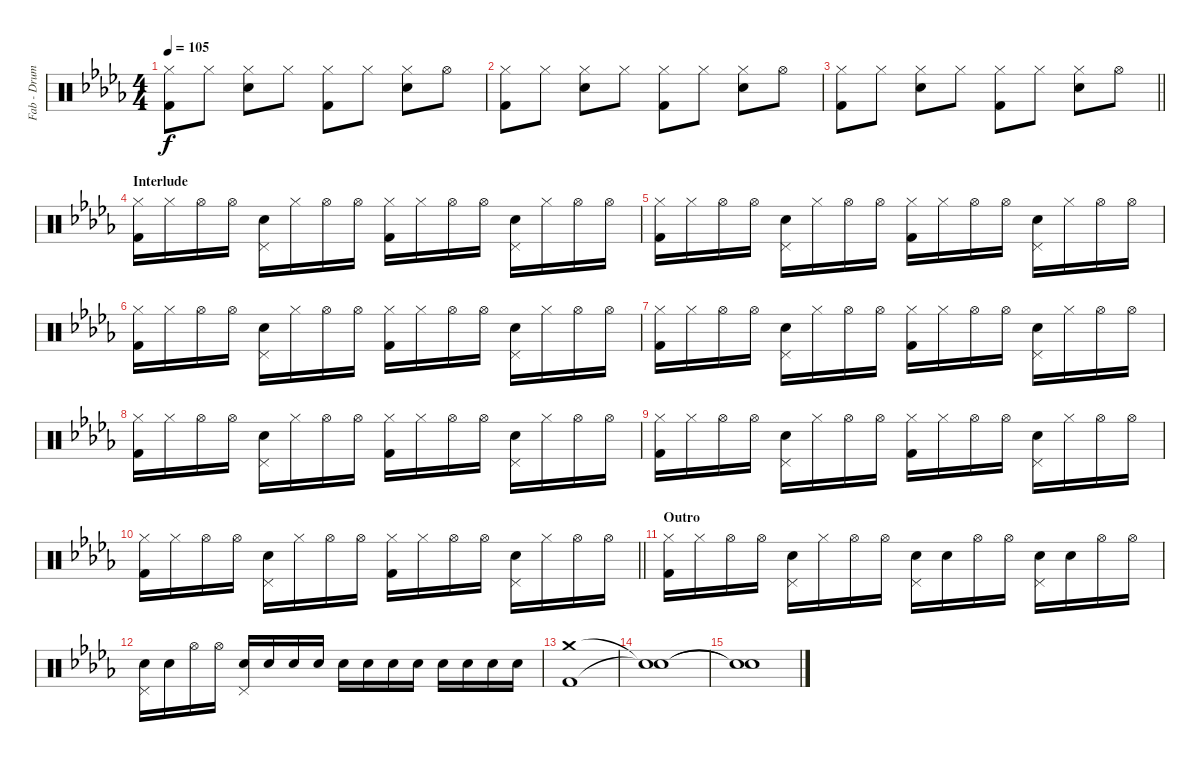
\track ("Fab - Drums MIDI" "Fab - Drum") {instrument percussion}
\staff {score}
\articulation defaults
\ts (4 4)
\tempo 105
\clef neutral
\ks db
("Hi-Hat (closed)" "Kick (hit) 2").8{dy f} "Hi-Hat (closed)".8 ("Hi-Hat (closed)" "Snare (hit) 2").8 "Hi-Hat (closed)".8 ("Hi-Hat (closed)" "Kick (hit) 2").8 "Hi-Hat (closed)".8 ("Hi-Hat (closed)" "Snare (hit) 2").8 "Hi-Hat (open)".8 |
("Hi-Hat (closed)" "Kick (hit) 2").8 "Hi-Hat (closed)".8 ("Hi-Hat (closed)" "Snare (hit) 2").8 "Hi-Hat (closed)".8 ("Hi-Hat (closed)" "Kick (hit) 2").8 "Hi-Hat (closed)".8 ("Hi-Hat (closed)" "Snare (hit) 2").8 "Hi-Hat (open)".8 |
\barLineRight lightlight
("Hi-Hat (closed)" "Kick (hit) 2").8 "Hi-Hat (closed)".8 ("Hi-Hat (closed)" "Snare (hit) 2").8 "Hi-Hat (closed)".8 ("Hi-Hat (closed)" "Kick (hit) 2").8 "Hi-Hat (closed)".8 ("Hi-Hat (closed)" "Snare (hit) 2").8 "Hi-Hat (open)".8 |
\section ("" "Interlude")
("Hi-Hat (closed)" "Kick (hit) 2").16 "Hi-Hat (closed)".16 "Hi-Hat (open)".16 "Hi-Hat (open)".16 ("Pedal Hi-Hat (hit)" "Snare (hit) 2").16 "Hi-Hat (closed)".16 "Hi-Hat (open)".16 "Hi-Hat (open)".16 ("Hi-Hat (closed)" "Kick (hit) 2").16 "Hi-Hat (closed)".16 "Hi-Hat (open)".16 "Hi-Hat (open)".16 ("Pedal Hi-Hat (hit)" "Snare (hit) 2").16 "Hi-Hat (closed)".16 "Hi-Hat (open)".16 "Hi-Hat (open)".16 |
("Hi-Hat (closed)" "Kick (hit) 2").16 "Hi-Hat (closed)".16 "Hi-Hat (open)".16 "Hi-Hat (open)".16 ("Pedal Hi-Hat (hit)" "Snare (hit) 2").16 "Hi-Hat (closed)".16 "Hi-Hat (open)".16 "Hi-Hat (open)".16 ("Hi-Hat (closed)" "Kick (hit) 2").16 "Hi-Hat (closed)".16 "Hi-Hat (open)".16 "Hi-Hat (open)".16 ("Pedal Hi-Hat (hit)" "Snare (hit) 2").16 "Hi-Hat (closed)".16 "Hi-Hat (open)".16 "Hi-Hat (open)".16 |
("Hi-Hat (closed)" "Kick (hit) 2").16 "Hi-Hat (closed)".16 "Hi-Hat (open)".16 "Hi-Hat (open)".16 ("Pedal Hi-Hat (hit)" "Snare (hit) 2").16 "Hi-Hat (closed)".16 "Hi-Hat (open)".16 "Hi-Hat (open)".16 ("Hi-Hat (closed)" "Kick (hit) 2").16 "Hi-Hat (closed)".16 "Hi-Hat (open)".16 "Hi-Hat (open)".16 ("Pedal Hi-Hat (hit)" "Snare (hit) 2").16 "Hi-Hat (closed)".16 "Hi-Hat (open)".16 "Hi-Hat (open)".16 |
("Hi-Hat (closed)" "Kick (hit) 2").16 "Hi-Hat (closed)".16 "Hi-Hat (open)".16 "Hi-Hat (open)".16 ("Pedal Hi-Hat (hit)" "Snare (hit) 2").16 "Hi-Hat (closed)".16 "Hi-Hat (open)".16 "Hi-Hat (open)".16 ("Hi-Hat (closed)" "Kick (hit) 2").16 "Hi-Hat (closed)".16 "Hi-Hat (open)".16 "Hi-Hat (open)".16 ("Pedal Hi-Hat (hit)" "Snare (hit) 2").16 "Hi-Hat (closed)".16 "Hi-Hat (open)".16 "Hi-Hat (open)".16 |
("Hi-Hat (closed)" "Kick (hit) 2").16 "Hi-Hat (closed)".16 "Hi-Hat (open)".16 "Hi-Hat (open)".16 ("Pedal Hi-Hat (hit)" "Snare (hit) 2").16 "Hi-Hat (closed)".16 "Hi-Hat (open)".16 "Hi-Hat (open)".16 ("Hi-Hat (closed)" "Kick (hit) 2").16 "Hi-Hat (closed)".16 "Hi-Hat (open)".16 "Hi-Hat (open)".16 ("Pedal Hi-Hat (hit)" "Snare (hit) 2").16 "Hi-Hat (closed)".16 "Hi-Hat (open)".16 "Hi-Hat (open)".16 |
("Hi-Hat (closed)" "Kick (hit) 2").16 "Hi-Hat (closed)".16 "Hi-Hat (open)".16 "Hi-Hat (open)".16 ("Pedal Hi-Hat (hit)" "Snare (hit) 2").16 "Hi-Hat (closed)".16 "Hi-Hat (open)".16 "Hi-Hat (open)".16 ("Hi-Hat (closed)" "Kick (hit) 2").16 "Hi-Hat (closed)".16 "Hi-Hat (open)".16 "Hi-Hat (open)".16 ("Pedal Hi-Hat (hit)" "Snare (hit) 2").16 "Hi-Hat (closed)".16 "Hi-Hat (open)".16 "Hi-Hat (open)".16 |
\barLineRight lightlight
("Hi-Hat (closed)" "Kick (hit) 2").16 "Hi-Hat (closed)".16 "Hi-Hat (open)".16 "Hi-Hat (open)".16 ("Pedal Hi-Hat (hit)" "Snare (hit) 2").16 "Hi-Hat (closed)".16 "Hi-Hat (open)".16 "Hi-Hat (open)".16 ("Hi-Hat (closed)" "Kick (hit) 2").16 "Hi-Hat (closed)".16 "Hi-Hat (open)".16 "Hi-Hat (open)".16 ("Pedal Hi-Hat (hit)" "Snare (hit) 2").16 "Hi-Hat (closed)".16 "Hi-Hat (open)".16 "Hi-Hat (open)".16 |
\section ("" "Outro")
("Hi-Hat (closed)" "Kick (hit) 2").16 "Hi-Hat (closed)".16 "Hi-Hat (open)".16 "Hi-Hat (open)".16 ("Pedal Hi-Hat (hit)" "Snare (hit) 2").16 "Hi-Hat (closed)".16 "Hi-Hat (open)".16 "Hi-Hat (open)".16 ("Pedal Hi-Hat (hit)" "Snare (hit) 2").16 "Snare (hit) 2".16 "Hi-Hat (open)".16 "Hi-Hat (open)".16 ("Pedal Hi-Hat (hit)" "Snare (hit) 2").16 "Snare (hit) 2".16 "Hi-Hat (open)".16 "Hi-Hat (open)".16 |
("Pedal Hi-Hat (hit)" "Snare (hit) 2").16 "Snare (hit) 2".16 "Hi-Hat (open)".16 "Hi-Hat (open)".16 ("Pedal Hi-Hat (hit)" "Snare (hit) 2").16 "Snare (hit) 2".16 "Snare (hit) 2".16 "Snare (hit) 2".16 "Snare (hit) 2".16 "Snare (hit) 2".16 "Snare (hit) 2".16 "Snare (hit) 2".16 "Snare (hit) 2".16 "Snare (hit) 2".16 "Snare (hit) 2".16 "Snare (hit) 2".16 |
("Crash medium (hit)" "Kick (hit) 2").1 |
("Snare (hit)"{t} "Snare (hit)"{t}).1 |
("Snare (hit)"{t} "Snare (hit)"{t}).1
